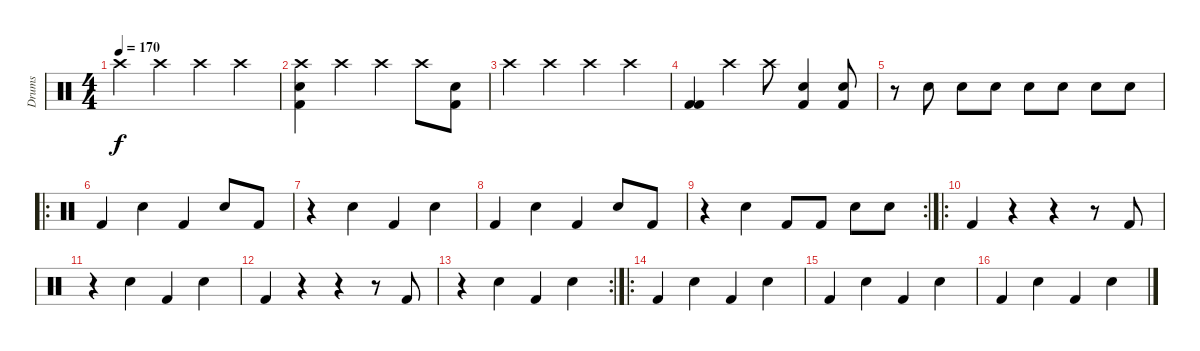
\track ("Drums" "Drums") {instrument percussion}
\staff {score}
\articulation defaults
\ts (4 4)
\tempo 170
\clef neutral
\ks c "Crash high (hit)".4{dy f} "Crash high (hit)".4 "Crash high (hit)".4 "Crash high (hit)".4
|
("Snare (hit) 2" "Kick (hit) 2" "Crash high (hit)").4 "Crash high (hit)".4 "Crash high (hit)".4 "Crash high (hit)".8 ("Snare (hit) 2" "Kick (hit) 2").8 |
"Crash high (hit)".4 "Crash high (hit)".4 "Crash high (hit)".4 "Crash high (hit)".4 |
("Kick (hit) 2" "Kick (hit) 2").4 "Crash high (hit)".4 "Crash high (hit)".8 ("Snare (hit) 2" "Kick (hit) 2").4 ("Snare (hit) 2" "Kick (hit) 2").8 |
r.8 "Snare (hit) 2".8 "Snare (hit) 2".8 "Snare (hit) 2".8 "Snare (hit) 2".8 "Snare (hit) 2".8 "Snare (hit) 2".8 "Snare (hit) 2".8 |
\ro "Kick (hit) 2".4 "Snare (hit) 2".4 "Kick (hit) 2".4 "Snare (hit) 2".8 "Kick (hit) 2".8
|
r.4 "Snare (hit) 2".4 "Kick (hit) 2".4 "Snare (hit) 2".4 |
"Kick (hit) 2".4 "Snare (hit) 2".4 "Kick (hit) 2".4 "Snare (hit) 2".8 "Kick (hit) 2".8 |
\rc 2
r.4 "Snare (hit) 2".4 "Kick (hit) 2".8 "Kick (hit) 2".8 "Snare (hit) 2".8 "Snare (hit) 2".8 |
\ro "Kick (hit) 2".4
r.4 r.4 r.8 "Kick (hit) 2".8 |
r.4 "Snare (hit) 2".4 "Kick (hit) 2".4 "Snare (hit) 2".4 |
"Kick (hit) 2".4 r.4 r.4 r.8 "Kick (hit) 2".8 |
\rc 2
r.4 "Snare (hit) 2".4 "Kick (hit) 2".4 "Snare (hit) 2".4 |
\ro "Kick (hit) 2".4 "Snare (hit) 2".4 "Kick (hit) 2".4 "Snare (hit) 2".4
|
"Kick (hit) 2".4 "Snare (hit) 2".4 "Kick (hit) 2".4 "Snare (hit) 2".4 |
"Kick (hit) 2".4 "Snare (hit) 2".4 "Kick (hit) 2".4 "Snare (hit) 2".4
